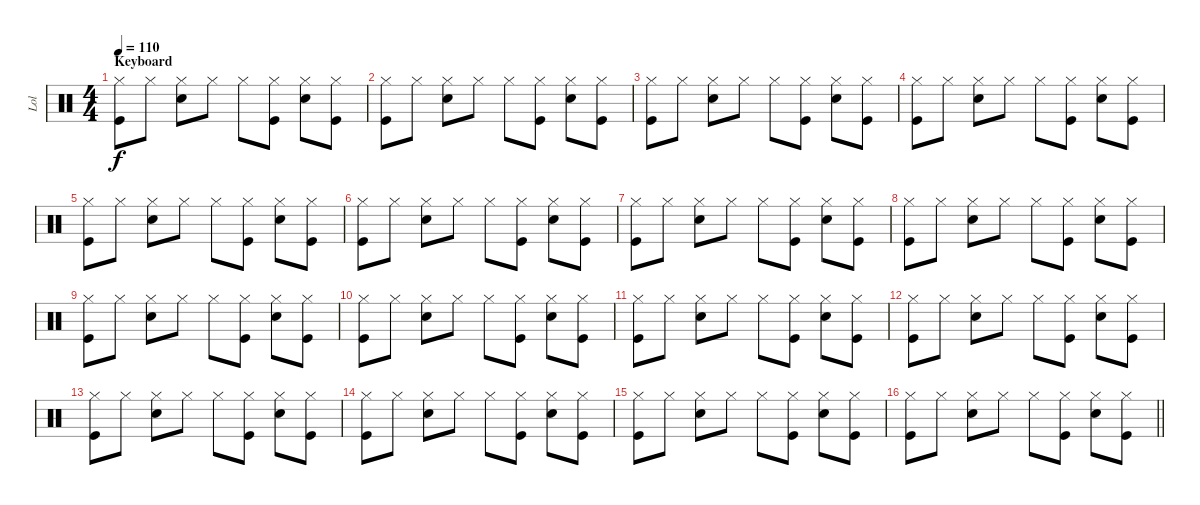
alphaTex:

\track ("Lol" "Lol") {instrument percussion}
\staff {score}
\articulation defaults
\ts (4 4)
\section ("" "Keyboard")
\tempo 110
\clef neutral
\ks c
("Hi-Hat (closed)" "Kick (hit)").8{dy f} "Hi-Hat (closed)".8 ("Hi-Hat (closed)" "Electric Snare (hit)").8 "Hi-Hat (closed)".8 "Hi-Hat (closed)".8 ("Hi-Hat (closed)" "Kick (hit)").8 ("Hi-Hat (closed)" "Electric Snare (hit)").8 ("Hi-Hat (closed)" "Kick (hit)").8 |
("Hi-Hat (closed)" "Kick (hit)").8 "Hi-Hat (closed)".8 ("Hi-Hat (closed)" "Electric Snare (hit)").8 "Hi-Hat (closed)".8 "Hi-Hat (closed)".8 ("Hi-Hat (closed)" "Kick (hit)").8 ("Hi-Hat (closed)" "Electric Snare (hit)").8 ("Hi-Hat (closed)" "Kick (hit)").8 |
("Hi-Hat (closed)" "Kick (hit)").8 "Hi-Hat (closed)".8 ("Hi-Hat (closed)" "Electric Snare (hit)").8 "Hi-Hat (closed)".8 "Hi-Hat (closed)".8 ("Hi-Hat (closed)" "Kick (hit)").8 ("Hi-Hat (closed)" "Electric Snare (hit)").8 ("Hi-Hat (closed)" "Kick (hit)").8 |
("Hi-Hat (closed)" "Kick (hit)").8 "Hi-Hat (closed)".8 ("Hi-Hat (closed)" "Electric Snare (hit)").8 "Hi-Hat (closed)".8 "Hi-Hat (closed)".8 ("Hi-Hat (closed)" "Kick (hit)").8 ("Hi-Hat (closed)" "Electric Snare (hit)").8 ("Hi-Hat (closed)" "Kick (hit)").8 |
("Hi-Hat (closed)" "Kick (hit)").8 "Hi-Hat (closed)".8 ("Hi-Hat (closed)" "Electric Snare (hit)").8 "Hi-Hat (closed)".8 "Hi-Hat (closed)".8 ("Hi-Hat (closed)" "Kick (hit)").8 ("Hi-Hat (closed)" "Electric Snare (hit)").8 ("Hi-Hat (closed)" "Kick (hit)").8 |
("Hi-Hat (closed)" "Kick (hit)").8 "Hi-Hat (closed)".8 ("Hi-Hat (closed)" "Electric Snare (hit)").8 "Hi-Hat (closed)".8 "Hi-Hat (closed)".8 ("Hi-Hat (closed)" "Kick (hit)").8 ("Hi-Hat (closed)" "Electric Snare (hit)").8 ("Hi-Hat (closed)" "Kick (hit)").8 |
("Hi-Hat (closed)" "Kick (hit)").8 "Hi-Hat (closed)".8 ("Hi-Hat (closed)" "Electric Snare (hit)").8 "Hi-Hat (closed)".8 "Hi-Hat (closed)".8 ("Hi-Hat (closed)" "Kick (hit)").8 ("Hi-Hat (closed)" "Electric Snare (hit)").8 ("Hi-Hat (closed)" "Kick (hit)").8 |
("Hi-Hat (closed)" "Kick (hit)").8 "Hi-Hat (closed)".8 ("Hi-Hat (closed)" "Electric Snare (hit)").8 "Hi-Hat (closed)".8 "Hi-Hat (closed)".8 ("Hi-Hat (closed)" "Kick (hit)").8 ("Hi-Hat (closed)" "Electric Snare (hit)").8 ("Hi-Hat (closed)" "Kick (hit)").8 |
("Hi-Hat (closed)" "Kick (hit)").8 "Hi-Hat (closed)".8 ("Hi-Hat (closed)" "Electric Snare (hit)").8 "Hi-Hat (closed)".8 "Hi-Hat (closed)".8 ("Hi-Hat (closed)" "Kick (hit)").8 ("Hi-Hat (closed)" "Electric Snare (hit)").8 ("Hi-Hat (closed)" "Kick (hit)").8 |
("Hi-Hat (closed)" "Kick (hit)").8 "Hi-Hat (closed)".8 ("Hi-Hat (closed)" "Electric Snare (hit)").8 "Hi-Hat (closed)".8 "Hi-Hat (closed)".8 ("Hi-Hat (closed)" "Kick (hit)").8 ("Hi-Hat (closed)" "Electric Snare (hit)").8 ("Hi-Hat (closed)" "Kick (hit)").8 |
("Hi-Hat (closed)" "Kick (hit)").8 "Hi-Hat (closed)".8 ("Hi-Hat (closed)" "Electric Snare (hit)").8 "Hi-Hat (closed)".8 "Hi-Hat (closed)".8 ("Hi-Hat (closed)" "Kick (hit)").8 ("Hi-Hat (closed)" "Electric Snare (hit)").8 ("Hi-Hat (closed)" "Kick (hit)").8 |
("Hi-Hat (closed)" "Kick (hit)").8 "Hi-Hat (closed)".8 ("Hi-Hat (closed)" "Electric Snare (hit)").8 "Hi-Hat (closed)".8 "Hi-Hat (closed)".8 ("Hi-Hat (closed)" "Kick (hit)").8 ("Hi-Hat (closed)" "Electric Snare (hit)").8 ("Hi-Hat (closed)" "Kick (hit)").8 |
("Hi-Hat (closed)" "Kick (hit)").8 "Hi-Hat (closed)".8 ("Hi-Hat (closed)" "Electric Snare (hit)").8 "Hi-Hat (closed)".8 "Hi-Hat (closed)".8 ("Hi-Hat (closed)" "Kick (hit)").8 ("Hi-Hat (closed)" "Electric Snare (hit)").8 ("Hi-Hat (closed)" "Kick (hit)").8 |
("Hi-Hat (closed)" "Kick (hit)").8 "Hi-Hat (closed)".8 ("Hi-Hat (closed)" "Electric Snare (hit)").8 "Hi-Hat (closed)".8 "Hi-Hat (closed)".8 ("Hi-Hat (closed)" "Kick (hit)").8 ("Hi-Hat (closed)" "Electric Snare (hit)").8 ("Hi-Hat (closed)" "Kick (hit)").8 |
("Hi-Hat (closed)" "Kick (hit)").8 "Hi-Hat (closed)".8 ("Hi-Hat (closed)" "Electric Snare (hit)").8 "Hi-Hat (closed)".8 "Hi-Hat (closed)".8 ("Hi-Hat (closed)" "Kick (hit)").8 ("Hi-Hat (closed)" "Electric Snare (hit)").8 ("Hi-Hat (closed)" "Kick (hit)").8 |
\barLineRight lightlight
("Hi-Hat (closed)" "Kick (hit)").8 "Hi-Hat (closed)".8 ("Hi-Hat (closed)" "Electric Snare (hit)").8 "Hi-Hat (closed)".8 "Hi-Hat (closed)".8 ("Hi-Hat (closed)" "Kick (hit)").8 ("Hi-Hat (closed)" "Electric Snare (hit)").8 ("Hi-Hat (closed)" "Kick (hit)").8
